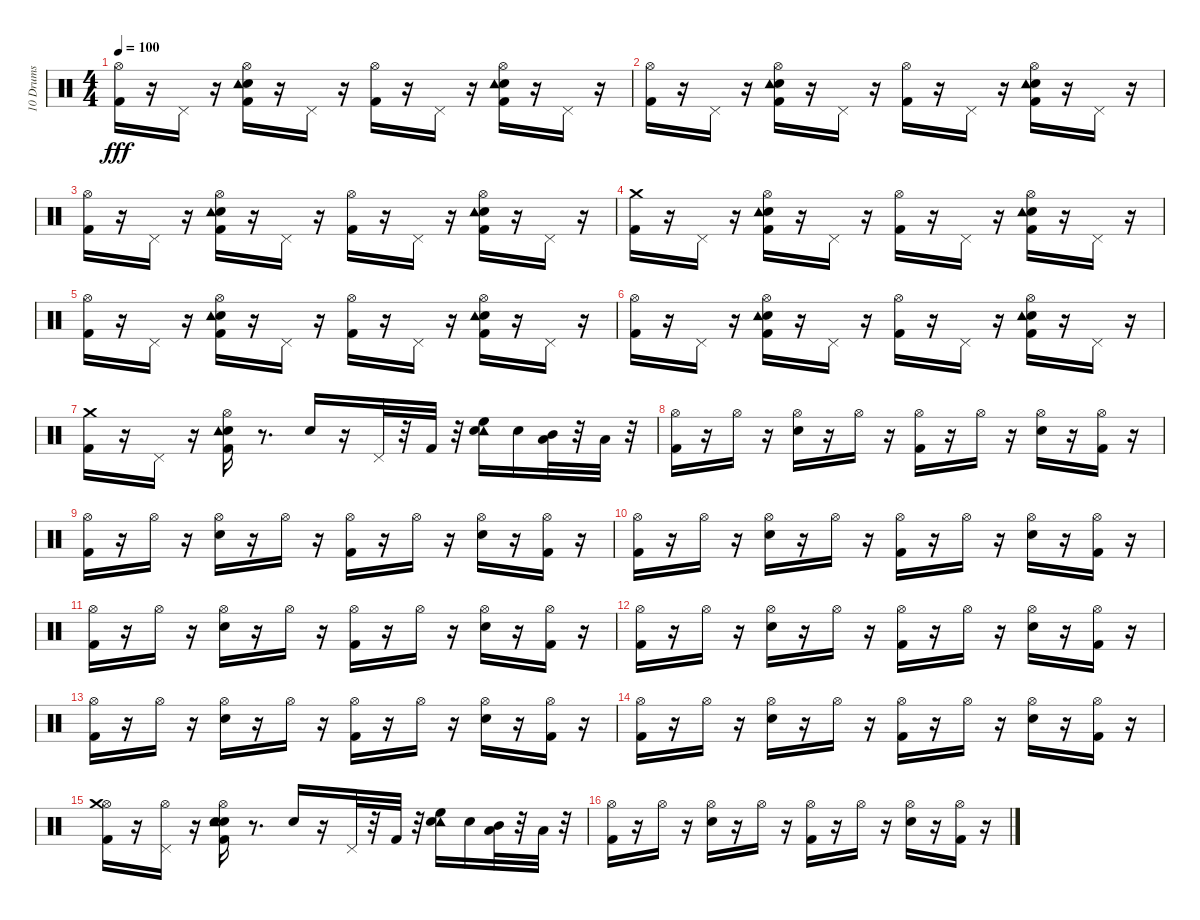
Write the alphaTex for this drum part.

\track ("10 Drums" "10 Drums") {instrument percussion}
\staff {score}
\articulation defaults
\ts (4 4)
\tempo 100
\clef neutral
\ks c
("Hi-Hat (open)" "Kick (hit) 2").16{dy fff} r.16 "Pedal Hi-Hat (hit)".16 r.16 ("Hi-Hat (open)" "Electric Snare (hit)" "Kick (hit) 2" "Tambourine (hit)").16 r.16 "Pedal Hi-Hat (hit)".16 r.16 ("Hi-Hat (open)" "Kick (hit) 2").16 r.16 "Pedal Hi-Hat (hit)".16 r.16 ("Hi-Hat (open)" "Kick (hit) 2" "Electric Snare (hit)" "Tambourine (hit)").16 r.16 "Pedal Hi-Hat (hit)".16 r.16 |
("Hi-Hat (open)" "Kick (hit) 2").16 r.16 "Pedal Hi-Hat (hit)".16 r.16 ("Hi-Hat (open)" "Electric Snare (hit)" "Kick (hit) 2" "Tambourine (hit)").16 r.16 "Pedal Hi-Hat (hit)".16 r.16 ("Hi-Hat (open)" "Kick (hit) 2").16 r.16 "Pedal Hi-Hat (hit)".16 r.16 ("Hi-Hat (open)" "Kick (hit) 2" "Electric Snare (hit)" "Tambourine (hit)").16 r.16 "Pedal Hi-Hat (hit)".16 r.16 |
("Hi-Hat (open)" "Kick (hit) 2").16 r.16 "Pedal Hi-Hat (hit)".16 r.16 ("Hi-Hat (open)" "Electric Snare (hit)" "Kick (hit) 2" "Tambourine (hit)").16 r.16 "Pedal Hi-Hat (hit)".16 r.16 ("Hi-Hat (open)" "Kick (hit) 2").16 r.16 "Pedal Hi-Hat (hit)".16 r.16 ("Hi-Hat (open)" "Kick (hit) 2" "Electric Snare (hit)" "Tambourine (hit)").16 r.16 "Pedal Hi-Hat (hit)".16 r.16 |
("Kick (hit) 2" "Crash medium (hit)").16 r.16 "Pedal Hi-Hat (hit)".16 r.16 ("Hi-Hat (open)" "Electric Snare (hit)" "Kick (hit) 2" "Tambourine (hit)").16 r.16 "Pedal Hi-Hat (hit)".16 r.16 ("Hi-Hat (open)" "Kick (hit) 2").16 r.16 "Pedal Hi-Hat (hit)".16 r.16 ("Hi-Hat (open)" "Kick (hit) 2" "Electric Snare (hit)" "Tambourine (hit)").16 r.16 "Pedal Hi-Hat (hit)".16 r.16 |
("Hi-Hat (open)" "Kick (hit) 2").16 r.16 "Pedal Hi-Hat (hit)".16 r.16 ("Hi-Hat (open)" "Electric Snare (hit)" "Kick (hit) 2" "Tambourine (hit)").16 r.16 "Pedal Hi-Hat (hit)".16 r.16 ("Hi-Hat (open)" "Kick (hit) 2").16 r.16 "Pedal Hi-Hat (hit)".16 r.16 ("Hi-Hat (open)" "Kick (hit) 2" "Electric Snare (hit)" "Tambourine (hit)").16 r.16 "Pedal Hi-Hat (hit)".16 r.16 |
("Hi-Hat (open)" "Kick (hit) 2").16 r.16 "Pedal Hi-Hat (hit)".16 r.16 ("Hi-Hat (open)" "Electric Snare (hit)" "Kick (hit) 2" "Tambourine (hit)").16 r.16 "Pedal Hi-Hat (hit)".16 r.16 ("Hi-Hat (open)" "Kick (hit) 2").16 r.16 "Pedal Hi-Hat (hit)".16 r.16 ("Hi-Hat (open)" "Kick (hit) 2" "Electric Snare (hit)" "Tambourine (hit)").16 r.16 "Pedal Hi-Hat (hit)".16 r.16 |
("Kick (hit) 2" "Crash medium (hit)").16 r.16 "Pedal Hi-Hat (hit)".16 r.16 ("Hi-Hat (open)" "Electric Snare (hit)" "Kick (hit) 2" "Tambourine (hit)").16 r.8{d} "Electric Snare (hit)".16 r.16 "Pedal Hi-Hat (hit)".32 r.32 "Kick (hit) 2".32 r.32 ("Tambourine (hit)" "Electric Snare (hit)" "High Floor Tom (hit)").16 "Electric Snare (hit)".16 ("Mid Tom (hit)" "Low Floor Tom (hit)").32 r.32 "Low Floor Tom (hit)".32 r.32 |
("Hi-Hat (open)" "Kick (hit) 2").16 r.16 "Hi-Hat (open)".16 r.16 ("Hi-Hat (open)" "Snare (hit) 2").16 r.16 "Hi-Hat (open)".16 r.16 ("Hi-Hat (open)" "Kick (hit) 2").16 r.16 "Hi-Hat (open)".16 r.16 ("Hi-Hat (open)" "Snare (hit) 2").16 r.16 ("Hi-Hat (open)" "Kick (hit) 2").16 r.16 |
("Hi-Hat (open)" "Kick (hit) 2").16 r.16 "Hi-Hat (open)".16 r.16 ("Hi-Hat (open)" "Snare (hit) 2").16 r.16 "Hi-Hat (open)".16 r.16 ("Hi-Hat (open)" "Kick (hit) 2").16 r.16 "Hi-Hat (open)".16 r.16 ("Hi-Hat (open)" "Snare (hit) 2").16 r.16 ("Hi-Hat (open)" "Kick (hit) 2").16 r.16 |
("Hi-Hat (open)" "Kick (hit) 2").16 r.16 "Hi-Hat (open)".16 r.16 ("Hi-Hat (open)" "Snare (hit) 2").16 r.16 "Hi-Hat (open)".16 r.16 ("Hi-Hat (open)" "Kick (hit) 2").16 r.16 "Hi-Hat (open)".16 r.16 ("Hi-Hat (open)" "Snare (hit) 2").16 r.16 ("Hi-Hat (open)" "Kick (hit) 2").16 r.16 |
("Hi-Hat (open)" "Kick (hit) 2").16 r.16 "Hi-Hat (open)".16 r.16 ("Hi-Hat (open)" "Snare (hit) 2").16 r.16 "Hi-Hat (open)".16 r.16 ("Hi-Hat (open)" "Kick (hit) 2").16 r.16 "Hi-Hat (open)".16 r.16 ("Hi-Hat (open)" "Snare (hit) 2").16 r.16 ("Hi-Hat (open)" "Kick (hit) 2").16 r.16 |
("Hi-Hat (open)" "Kick (hit) 2").16 r.16 "Hi-Hat (open)".16 r.16 ("Hi-Hat (open)" "Snare (hit) 2").16 r.16 "Hi-Hat (open)".16 r.16 ("Hi-Hat (open)" "Kick (hit) 2").16 r.16 "Hi-Hat (open)".16 r.16 ("Hi-Hat (open)" "Snare (hit) 2").16 r.16 ("Hi-Hat (open)" "Kick (hit) 2").16 r.16 |
("Hi-Hat (open)" "Kick (hit) 2").16 r.16 "Hi-Hat (open)".16 r.16 ("Hi-Hat (open)" "Snare (hit) 2").16 r.16 "Hi-Hat (open)".16 r.16 ("Hi-Hat (open)" "Kick (hit) 2").16 r.16 "Hi-Hat (open)".16 r.16 ("Hi-Hat (open)" "Snare (hit) 2").16 r.16 ("Hi-Hat (open)" "Kick (hit) 2").16 r.16 |
("Hi-Hat (open)" "Kick (hit) 2").16 r.16 "Hi-Hat (open)".16 r.16 ("Hi-Hat (open)" "Snare (hit) 2").16 r.16 "Hi-Hat (open)".16 r.16 ("Hi-Hat (open)" "Kick (hit) 2").16 r.16 "Hi-Hat (open)".16 r.16 ("Hi-Hat (open)" "Snare (hit) 2").16 r.16 ("Hi-Hat (open)" "Kick (hit) 2").16 r.16 |
("Hi-Hat (open)" "Kick (hit) 2" "Crash medium (hit)").16 r.16 ("Hi-Hat (open)" "Pedal Hi-Hat (hit)").16 r.16 ("Hi-Hat (open)" "Snare (hit) 2" "Electric Snare (hit)" "Kick (hit) 2" "Tambourine (hit)").16 r.8{d} "Electric Snare (hit)".16 r.16 "Pedal Hi-Hat (hit)".32 r.32 "Kick (hit) 2".32 r.32 ("Tambourine (hit)" "Electric Snare (hit)" "High Floor Tom (hit)").16 "Electric Snare (hit)".16 ("Mid Tom (hit)" "Low Floor Tom (hit)").32 r.32 "Low Floor Tom (hit)".32 r.32 |
("Hi-Hat (open)" "Kick (hit) 2").16 r.16 "Hi-Hat (open)".16 r.16 ("Hi-Hat (open)" "Snare (hit) 2").16 r.16 "Hi-Hat (open)".16 r.16 ("Hi-Hat (open)" "Kick (hit) 2").16 r.16 "Hi-Hat (open)".16 r.16 ("Hi-Hat (open)" "Snare (hit) 2").16 r.16 ("Hi-Hat (open)" "Kick (hit) 2").16 r.16
